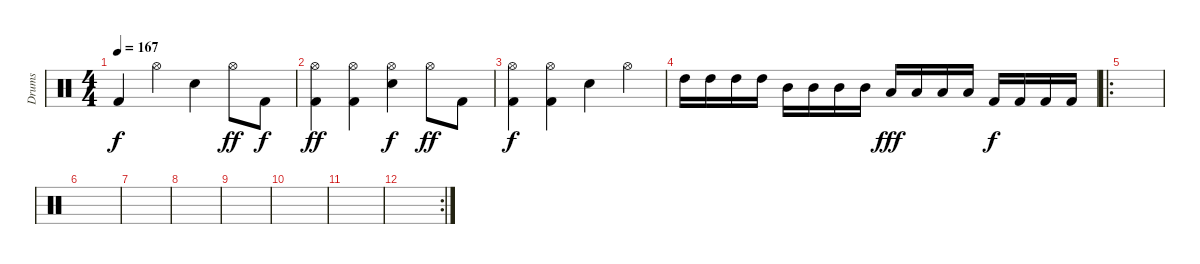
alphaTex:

\track ("Drums" "Drums") {instrument percussion}
\staff {score}
\articulation defaults
\ts (4 4)
\tempo 167
\clef neutral
\ks c "Kick (hit) 2".4{dy f} "Hi-Hat (open)".4 "Electric Snare (hit)".4 "Hi-Hat (open)".8{dy ff} "Kick (hit) 2".8{dy f}
|
("Hi-Hat (open)" "Kick (hit) 2").4{dy ff} ("Hi-Hat (open)" "Kick (hit) 2").4 ("Electric Snare (hit)" "Hi-Hat (open)").4{dy f} "Hi-Hat (open)".8{dy ff} "Kick (hit) 2".8 |
("Hi-Hat (open)" "Kick (hit) 2").4{dy f} ("Hi-Hat (open)" "Kick (hit) 2").4 "Electric Snare (hit)".4 "Hi-Hat (open)".4 |
"High Tom (hit)".16 "High Tom (hit)".16 "High Tom (hit)".16 "High Tom (hit)".16 "Mid Tom (hit)".16 "Mid Tom (hit)".16 "Mid Tom (hit)".16 "Mid Tom (hit)".16 "Low Tom (hit)".16{dy fff} "Low Tom (hit)".16 "Low Tom (hit)".16 "Low Tom (hit)".16 "Kick (hit) 2".16{dy f} "Kick (hit) 2".16 "Kick (hit) 2".16 "Kick (hit) 2".16 |
\ro
|
|
|
|
|
|
|
\rc 2
